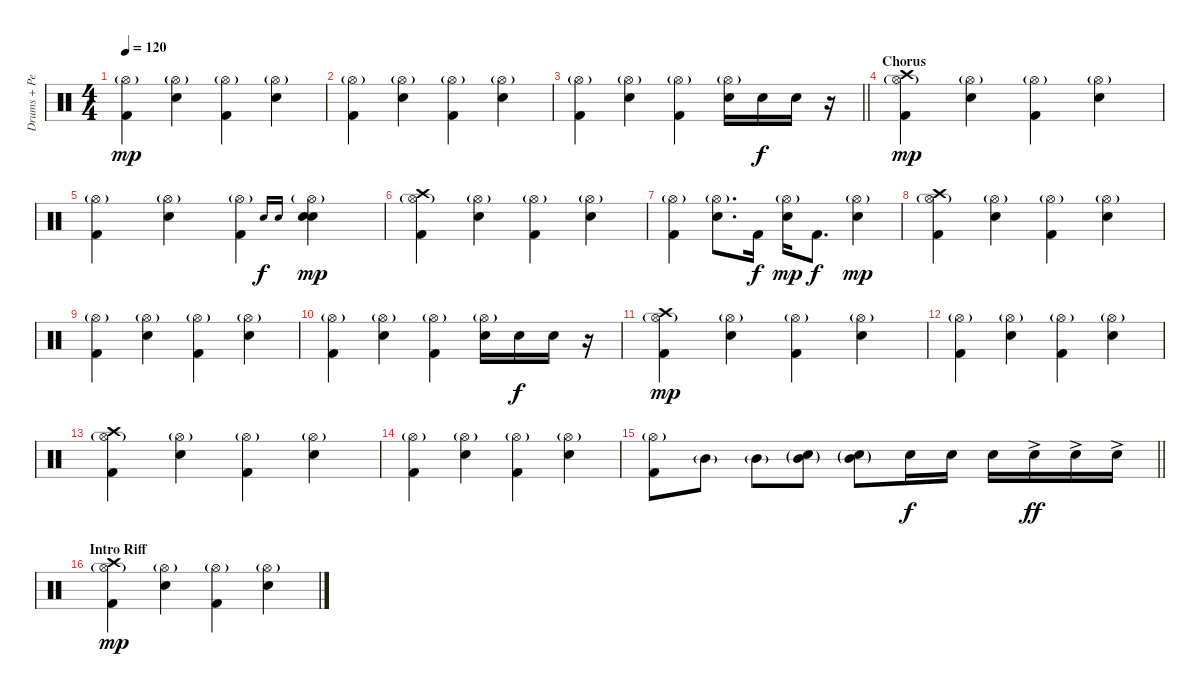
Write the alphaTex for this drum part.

\track ("Drums + Percussion" "Drums + Pe") {instrument percussion}
\staff {score}
\articulation defaults
\ts (4 4)
\tempo 120
\clef neutral
\ks c
("Hi-Hat (open)"{g} "Kick (hit) 2").4{dy mp} ("Hi-Hat (open)"{g} "Electric Snare (hit)").4 ("Hi-Hat (open)"{g} "Kick (hit) 2").4 ("Hi-Hat (open)"{g} "Electric Snare (hit)").4 |
("Hi-Hat (open)"{g} "Kick (hit) 2").4 ("Hi-Hat (open)"{g} "Electric Snare (hit)").4 ("Hi-Hat (open)"{g} "Kick (hit) 2").4 ("Hi-Hat (open)"{g} "Electric Snare (hit)").4 |
\barLineRight lightlight
("Hi-Hat (open)"{g} "Kick (hit) 2").4 ("Hi-Hat (open)"{g} "Electric Snare (hit)").4 ("Hi-Hat (open)"{g} "Kick (hit) 2").4 ("Hi-Hat (open)"{g} "Electric Snare (hit)").16 "Electric Snare (hit)".16{dy f} "Electric Snare (hit)".16 r.16 |
\section ("" "Chorus")
("Hi-Hat (open)"{g} "Crash high (hit)" "Kick (hit) 2").4{dy mp} ("Hi-Hat (open)"{g} "Electric Snare (hit)").4 ("Hi-Hat (open)"{g} "Kick (hit) 2").4 ("Hi-Hat (open)"{g} "Electric Snare (hit)").4 |
("Hi-Hat (open)"{g} "Kick (hit) 2").4 ("Hi-Hat (open)"{g} "Electric Snare (hit)").4 ("Hi-Hat (open)"{g} "Kick (hit) 2").4 "Electric Snare (hit)".16{gr onbeat dy f} "Electric Snare (hit)".16{gr onbeat} ("Hi-Hat (open)"{g} "Electric Snare (hit)" "Electric Snare (hit)").4{dy mp} |
("Hi-Hat (open)"{g} "Crash high (hit)" "Kick (hit) 2").4 ("Hi-Hat (open)"{g} "Electric Snare (hit)").4 ("Hi-Hat (open)"{g} "Kick (hit) 2").4 ("Hi-Hat (open)"{g} "Electric Snare (hit)").4 |
("Hi-Hat (open)"{g} "Kick (hit) 2").4 ("Hi-Hat (open)"{g} "Electric Snare (hit)").8{d} "Kick (hit) 2".16{dy f} ("Hi-Hat (open)"{g} "Electric Snare (hit)").16{dy mp} "Kick (hit) 2".8{d dy f} ("Hi-Hat (open)"{g} "Electric Snare (hit)").4{dy mp} |
("Hi-Hat (open)"{g} "Crash high (hit)" "Kick (hit) 2").4 ("Hi-Hat (open)"{g} "Electric Snare (hit)").4 ("Hi-Hat (open)"{g} "Kick (hit) 2").4 ("Hi-Hat (open)"{g} "Electric Snare (hit)").4 |
("Hi-Hat (open)"{g} "Kick (hit) 2").4 ("Hi-Hat (open)"{g} "Electric Snare (hit)").4 ("Hi-Hat (open)"{g} "Kick (hit) 2").4 ("Hi-Hat (open)"{g} "Electric Snare (hit)").4 |
("Hi-Hat (open)"{g} "Kick (hit) 2").4 ("Hi-Hat (open)"{g} "Electric Snare (hit)").4 ("Hi-Hat (open)"{g} "Kick (hit) 2").4 ("Hi-Hat (open)"{g} "Electric Snare (hit)").16 "Electric Snare (hit)".16{dy f} "Electric Snare (hit)".16 r.16 |
("Hi-Hat (open)"{g} "Crash high (hit)" "Kick (hit) 2").4{dy mp} ("Hi-Hat (open)"{g} "Electric Snare (hit)").4 ("Hi-Hat (open)"{g} "Kick (hit) 2").4 ("Hi-Hat (open)"{g} "Electric Snare (hit)").4 |
("Hi-Hat (open)"{g} "Kick (hit) 2").4 ("Hi-Hat (open)"{g} "Electric Snare (hit)").4 ("Hi-Hat (open)"{g} "Kick (hit) 2").4 ("Hi-Hat (open)"{g} "Electric Snare (hit)").4 |
("Hi-Hat (open)"{g} "Crash high (hit)" "Kick (hit) 2").4 ("Hi-Hat (open)"{g} "Electric Snare (hit)").4 ("Hi-Hat (open)"{g} "Kick (hit) 2").4 ("Hi-Hat (open)"{g} "Electric Snare (hit)").4 |
("Hi-Hat (open)"{g} "Kick (hit) 2").4 ("Hi-Hat (open)"{g} "Electric Snare (hit)").4 ("Hi-Hat (open)"{g} "Kick (hit) 2").4 ("Hi-Hat (open)"{g} "Electric Snare (hit)").4 |
\barLineRight lightlight
("Hi-Hat (open)"{g} "Kick (hit) 2").8 "Mid Tom (hit)"{g}.8 "Mid Tom (hit)"{g}.8 ("Electric Snare (hit)"{g} "Mid Tom (hit)"{g}).8 ("Electric Snare (hit)"{g} "Mid Tom (hit)"{g}).8 "Electric Snare (hit)".16{dy f} "Electric Snare (hit)".16 "Electric Snare (hit)".16 "Electric Snare (hit)"{ac}.16{dy ff} "Electric Snare (hit)"{ac}.16 "Electric Snare (hit)"{ac}.16 |
\section ("" "Intro Riff")
("Hi-Hat (open)"{g} "Crash high (hit)" "Kick (hit) 2").4{dy mp} ("Hi-Hat (open)"{g} "Electric Snare (hit)").4 ("Hi-Hat (open)"{g} "Kick (hit) 2").4 ("Hi-Hat (open)"{g} "Electric Snare (hit)").4
